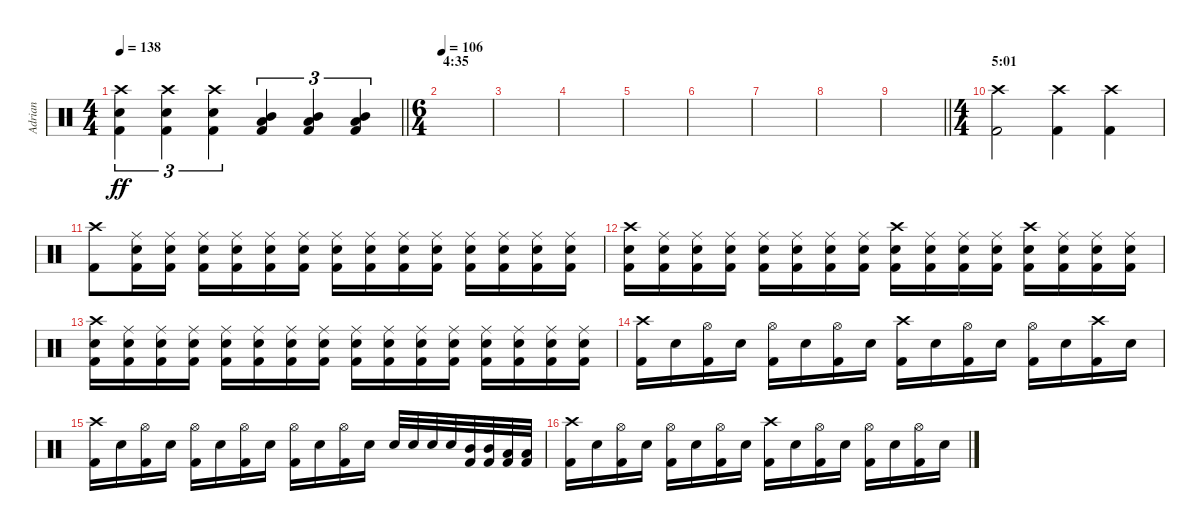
\track ("Adrian" "Adrian") {instrument percussion}
\staff {score}
\articulation defaults
\ts (4 4)
\tempo 138
\clef neutral
\barLineRight lightlight
\ks c
("Kick (hit) 2" "Snare (hit) 2" "Crash high (hit)").4{tu (3 2) dy ff} ("Kick (hit) 2" "Snare (hit) 2" "Crash high (hit)").4{tu (3 2)} ("Kick (hit) 2" "Snare (hit) 2" "Crash high (hit)").4{tu (3 2)} ("Kick (hit) 2" "Low Tom (hit)" "Mid Tom (hit)").4{tu (3 2)} ("Kick (hit) 2" "Low Tom (hit)" "Mid Tom (hit)").4{tu (3 2)} ("Kick (hit) 2" "Low Tom (hit)" "Mid Tom (hit)").4{tu (3 2)} |
\ts (6 4)
\section ("" "4:35")
\tempo 106
|
|
|
|
|
|
|
\barLineRight lightlight
|
\ts (4 4)
\section ("" "5:01")
("Kick (hit) 2" "Crash high (hit)").2 ("Kick (hit) 2" "Crash high (hit)").4 ("Kick (hit) 2" "Crash high (hit)").4 |
("Kick (hit) 2" "Crash high (hit)").8 ("Kick (hit) 2" "Snare (hit) 2" "Ride (middle)").16 ("Kick (hit) 2" "Snare (hit) 2" "Ride (middle)").16 ("Kick (hit) 2" "Snare (hit) 2" "Ride (middle)").16 ("Kick (hit) 2" "Snare (hit) 2" "Ride (middle)").16 ("Kick (hit) 2" "Snare (hit) 2" "Ride (middle)").16 ("Kick (hit) 2" "Snare (hit) 2" "Ride (middle)").16 ("Kick (hit) 2" "Snare (hit) 2" "Ride (middle)").16 ("Kick (hit) 2" "Snare (hit) 2" "Ride (middle)").16 ("Kick (hit) 2" "Snare (hit) 2" "Ride (middle)").16 ("Kick (hit) 2" "Snare (hit) 2" "Ride (middle)").16 ("Kick (hit) 2" "Snare (hit) 2" "Ride (middle)").16 ("Kick (hit) 2" "Snare (hit) 2" "Ride (middle)").16 ("Kick (hit) 2" "Snare (hit) 2" "Ride (middle)").16 ("Kick (hit) 2" "Snare (hit) 2" "Ride (middle)").16 |
("Kick (hit) 2" "Snare (hit) 2" "Crash high (hit)").16 ("Kick (hit) 2" "Snare (hit) 2" "Ride (middle)").16 ("Kick (hit) 2" "Snare (hit) 2" "Ride (middle)").16 ("Kick (hit) 2" "Snare (hit) 2" "Ride (middle)").16 ("Kick (hit) 2" "Snare (hit) 2" "Ride (middle)").16 ("Kick (hit) 2" "Snare (hit) 2" "Ride (middle)").16 ("Kick (hit) 2" "Snare (hit) 2" "Ride (middle)").16 ("Kick (hit) 2" "Snare (hit) 2" "Ride (middle)").16 ("Kick (hit) 2" "Snare (hit) 2" "Crash high (hit)").16 ("Kick (hit) 2" "Snare (hit) 2" "Ride (middle)").16 ("Kick (hit) 2" "Snare (hit) 2" "Ride (middle)").16 ("Kick (hit) 2" "Snare (hit) 2" "Ride (middle)").16 ("Kick (hit) 2" "Snare (hit) 2" "Crash high (hit)").16 ("Kick (hit) 2" "Snare (hit) 2" "Ride (middle)").16 ("Kick (hit) 2" "Snare (hit) 2" "Ride (middle)").16 ("Kick (hit) 2" "Snare (hit) 2" "Ride (middle)").16 |
("Kick (hit) 2" "Snare (hit) 2" "Crash high (hit)").16 ("Kick (hit) 2" "Snare (hit) 2" "Ride (middle)").16 ("Kick (hit) 2" "Snare (hit) 2" "Ride (middle)").16 ("Kick (hit) 2" "Snare (hit) 2" "Ride (middle)").16 ("Kick (hit) 2" "Snare (hit) 2" "Ride (middle)").16 ("Kick (hit) 2" "Snare (hit) 2" "Ride (middle)").16 ("Kick (hit) 2" "Snare (hit) 2" "Ride (middle)").16 ("Kick (hit) 2" "Snare (hit) 2" "Ride (middle)").16 ("Kick (hit) 2" "Snare (hit) 2" "Ride (middle)").16 ("Kick (hit) 2" "Snare (hit) 2" "Ride (middle)").16 ("Kick (hit) 2" "Snare (hit) 2" "Ride (middle)").16 ("Kick (hit) 2" "Snare (hit) 2" "Ride (middle)").16 ("Kick (hit) 2" "Snare (hit) 2" "Ride (middle)").16 ("Kick (hit) 2" "Snare (hit) 2" "Ride (middle)").16 ("Kick (hit) 2" "Snare (hit) 2" "Ride (middle)").16 ("Kick (hit) 2" "Snare (hit) 2" "Ride (middle)").16 |
("Kick (hit) 2" "Crash high (hit)").16 "Snare (hit) 2".16 ("Kick (hit) 2" "Hi-Hat (open)").16 "Snare (hit) 2".16 ("Kick (hit) 2" "Hi-Hat (open)").16 "Snare (hit) 2".16 ("Kick (hit) 2" "Hi-Hat (open)").16 "Snare (hit) 2".16 ("Kick (hit) 2" "Crash high (hit)").16 "Snare (hit) 2".16 ("Kick (hit) 2" "Hi-Hat (open)").16 "Snare (hit) 2".16 ("Kick (hit) 2" "Hi-Hat (open)").16 "Snare (hit) 2".16 ("Kick (hit) 2" "Crash high (hit)").16 "Snare (hit) 2".16 |
("Kick (hit) 2" "Crash high (hit)").16 "Snare (hit) 2".16 ("Kick (hit) 2" "Hi-Hat (open)").16 "Snare (hit) 2".16 ("Kick (hit) 2" "Hi-Hat (open)").16 "Snare (hit) 2".16 ("Kick (hit) 2" "Hi-Hat (open)").16 "Snare (hit) 2".16 ("Kick (hit) 2" "Hi-Hat (open)").16 "Snare (hit) 2".16 ("Kick (hit) 2" "Hi-Hat (open)").16 "Snare (hit) 2".16 "Snare (hit) 2".32 "Snare (hit) 2".32 "Snare (hit) 2".32 "Snare (hit) 2".32 ("Kick (hit) 2" "Mid Tom (hit)").32 ("Kick (hit) 2" "Mid Tom (hit)").32 ("Kick (hit) 2" "Low Tom (hit)").32 ("Kick (hit) 2" "Low Tom (hit)").32 |
("Kick (hit) 2" "Crash high (hit)").16 "Snare (hit) 2".16 ("Kick (hit) 2" "Hi-Hat (open)").16 "Snare (hit) 2".16 ("Kick (hit) 2" "Hi-Hat (open)").16 "Snare (hit) 2".16 ("Kick (hit) 2" "Hi-Hat (open)").16 "Snare (hit) 2".16 ("Kick (hit) 2" "Crash high (hit)").16 "Snare (hit) 2".16 ("Kick (hit) 2" "Hi-Hat (open)").16 "Snare (hit) 2".16 ("Kick (hit) 2" "Hi-Hat (open)").16 "Snare (hit) 2".16 ("Kick (hit) 2" "Hi-Hat (open)").16 "Snare (hit) 2".16
